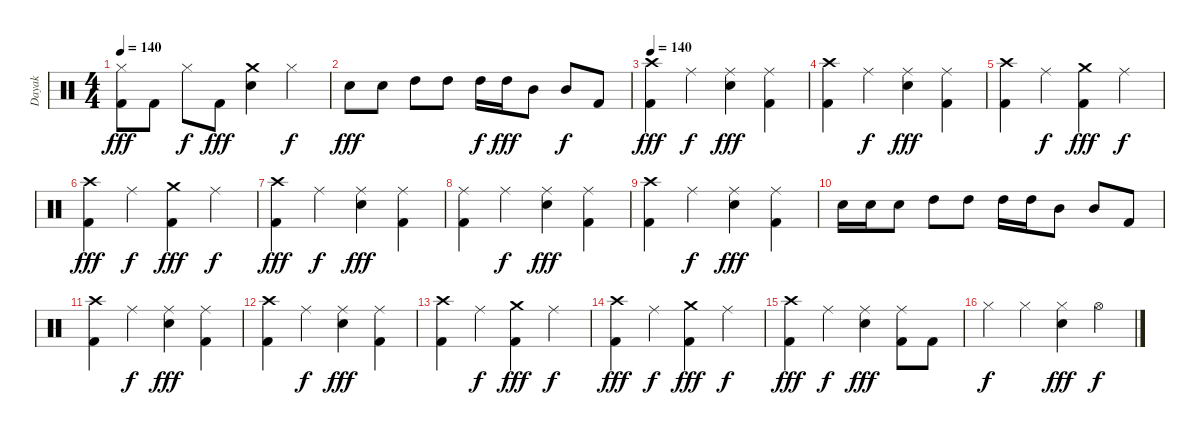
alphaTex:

\track ("Dayak" "Dayak") {instrument percussion}
\staff {score}
\articulation defaults
\ts (4 4)
\tempo 140
\clef neutral
\ks c
("Hi-Hat (closed)" "Kick (hit) 2").8{dy fff} "Kick (hit) 2".8 "Hi-Hat (closed)".8{dy f} "Kick (hit) 2".8{dy fff} ("Crash medium (hit)" "Snare (hit) 2").4 "Hi-Hat (closed)".4{dy f} |
"Snare (hit) 2".8{dy fff} "Snare (hit) 2".8 "High Tom (hit)".8 "High Tom (hit)".8 "High Tom (hit)".16{dy f} "High Tom (hit)".16{dy fff} "Mid Tom (hit)".8 "Mid Tom (hit)".8{dy f} "Kick (hit) 2".8 |
\tempo 140
("Crash high (hit)" "Kick (hit) 2").4{dy fff} "Ride (middle)".4{dy f} ("Ride (middle)" "Snare (hit) 2").4{dy fff} ("Ride (middle)" "Kick (hit) 2").4 |
("Crash high (hit)" "Kick (hit) 2").4 "Ride (middle)".4{dy f} ("Ride (middle)" "Snare (hit) 2").4{dy fff} ("Ride (middle)" "Kick (hit) 2").4 |
("Crash high (hit)" "Kick (hit) 2").4 "Ride (middle)".4{dy f} ("Crash medium (hit)" "Kick (hit) 2").4{dy fff} "Ride (middle)".4{dy f} |
("Crash high (hit)" "Kick (hit) 2").4{dy fff} "Ride (middle)".4{dy f} ("Crash medium (hit)" "Kick (hit) 2").4{dy fff} "Ride (middle)".4{dy f} |
("Crash high (hit)" "Kick (hit) 2").4{dy fff} "Ride (middle)".4{dy f} ("Ride (middle)" "Snare (hit) 2").4{dy fff} ("Ride (middle)" "Kick (hit) 2").4 |
("Ride (middle)" "Kick (hit) 2").4 "Ride (middle)".4{dy f} ("Ride (middle)" "Snare (hit) 2").4{dy fff} ("Ride (middle)" "Kick (hit) 2").4 |
("Crash high (hit)" "Kick (hit) 2").4 "Ride (middle)".4{dy f} ("Ride (middle)" "Snare (hit) 2").4{dy fff} ("Ride (middle)" "Kick (hit) 2").4 |
"Snare (hit) 2".16 "Snare (hit) 2".16 "Snare (hit) 2".8 "High Tom (hit)".8 "High Tom (hit)".8 "High Tom (hit)".16 "High Tom (hit)".16 "Mid Tom (hit)".8 "Mid Tom (hit)".8 "Kick (hit) 2".8 |
("Crash high (hit)" "Kick (hit) 2").4 "Ride (middle)".4{dy f} ("Ride (middle)" "Snare (hit) 2").4{dy fff} ("Ride (middle)" "Kick (hit) 2").4 |
("Crash high (hit)" "Kick (hit) 2").4 "Ride (middle)".4{dy f} ("Ride (middle)" "Snare (hit) 2").4{dy fff} ("Ride (middle)" "Kick (hit) 2").4 |
("Crash high (hit)" "Kick (hit) 2").4 "Ride (middle)".4{dy f} ("Crash medium (hit)" "Kick (hit) 2").4{dy fff} "Ride (middle)".4{dy f} |
("Crash high (hit)" "Kick (hit) 2").4{dy fff} "Ride (middle)".4{dy f} ("Crash medium (hit)" "Kick (hit) 2").4{dy fff} "Ride (middle)".4{dy f} |
("Crash high (hit)" "Kick (hit) 2").4{dy fff} "Ride (middle)".4{dy f} ("Ride (middle)" "Snare (hit) 2").4{dy fff} ("Ride (middle)" "Kick (hit) 2").8 "Kick (hit) 2".8 |
"Hi-Hat (closed)".4{dy f} "Hi-Hat (closed)".4 ("Hi-Hat (closed)" "Snare (hit) 2").4{dy fff} "Hi-Hat (open)".4{dy f}
